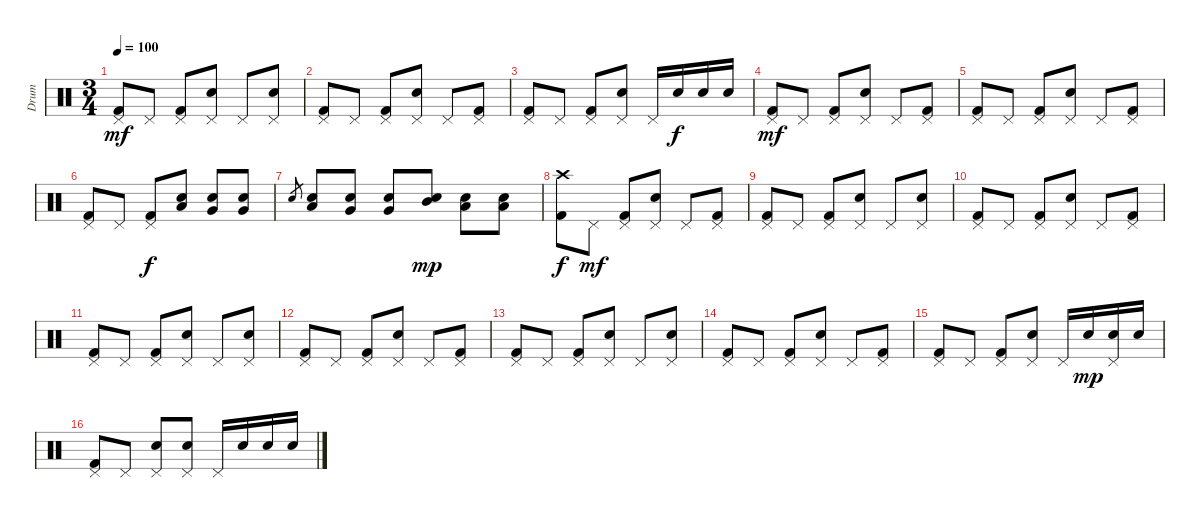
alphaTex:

\track ("Drum" "Drum") {instrument percussion}
\staff {score}
\articulation defaults
\ts (3 4)
\tempo 100
\clef neutral
\ks c
("Kick (hit) 2" "Pedal Hi-Hat (hit)").8{dy mf} "Pedal Hi-Hat (hit)".8 ("Kick (hit) 2" "Pedal Hi-Hat (hit)").8 ("Snare (hit) 2" "Pedal Hi-Hat (hit)").8 "Pedal Hi-Hat (hit)".8 ("Snare (hit) 2" "Pedal Hi-Hat (hit)").8 |
("Kick (hit) 2" "Pedal Hi-Hat (hit)").8 "Pedal Hi-Hat (hit)".8 ("Kick (hit) 2" "Pedal Hi-Hat (hit)").8 ("Snare (hit) 2" "Pedal Hi-Hat (hit)").8 "Pedal Hi-Hat (hit)".8 ("Kick (hit) 2" "Pedal Hi-Hat (hit)").8 |
("Kick (hit) 2" "Pedal Hi-Hat (hit)").8 "Pedal Hi-Hat (hit)".8 ("Kick (hit) 2" "Pedal Hi-Hat (hit)").8 ("Snare (hit) 2" "Pedal Hi-Hat (hit)").8 "Pedal Hi-Hat (hit)".16 "Snare (hit) 2".16{dy f} "Snare (hit) 2".16 "Snare (hit) 2".16 |
("Kick (hit) 2" "Pedal Hi-Hat (hit)").8{dy mf} "Pedal Hi-Hat (hit)".8 ("Kick (hit) 2" "Pedal Hi-Hat (hit)").8 ("Snare (hit) 2" "Pedal Hi-Hat (hit)").8 "Pedal Hi-Hat (hit)".8 ("Kick (hit) 2" "Pedal Hi-Hat (hit)").8 |
("Kick (hit) 2" "Pedal Hi-Hat (hit)").8 "Pedal Hi-Hat (hit)".8 ("Kick (hit) 2" "Pedal Hi-Hat (hit)").8 ("Snare (hit) 2" "Pedal Hi-Hat (hit)").8 "Pedal Hi-Hat (hit)".8 ("Kick (hit) 2" "Pedal Hi-Hat (hit)").8 |
("Kick (hit) 2" "Pedal Hi-Hat (hit)").8 "Pedal Hi-Hat (hit)".8 ("Kick (hit) 2" "Pedal Hi-Hat (hit)").8{dy f} ("Snare (hit) 2" "Low Tom (hit)").8{bd 30} ("Snare (hit) 2" "Very Low Tom (hit)").8{bd 30} ("Snare (hit) 2" "Very Low Tom (hit)").8{bd 30} |
"Electric Snare (hit)".8{gr} ("Snare (hit) 2" "Low Tom (hit)").8{bd 30} ("Snare (hit) 2" "Very Low Tom (hit)").8{bd 30} ("Snare (hit) 2" "Very Low Tom (hit)").8{bd 30} ("Snare (hit) 2" "Mid Tom (hit)").8{dy mp} ("Snare (hit) 2" "Low Tom (hit)").8 ("Snare (hit) 2" "Low Tom (hit)").8 |
("Kick (hit) 2" "Crash high (hit)").8{dy f} "Pedal Hi-Hat (hit)".8{dy mf} ("Kick (hit) 2" "Pedal Hi-Hat (hit)").8 ("Snare (hit) 2" "Pedal Hi-Hat (hit)").8 "Pedal Hi-Hat (hit)".8 ("Kick (hit) 2" "Pedal Hi-Hat (hit)").8 |
("Kick (hit) 2" "Pedal Hi-Hat (hit)").8 "Pedal Hi-Hat (hit)".8 ("Kick (hit) 2" "Pedal Hi-Hat (hit)").8 ("Snare (hit) 2" "Pedal Hi-Hat (hit)").8 "Pedal Hi-Hat (hit)".8 ("Snare (hit) 2" "Pedal Hi-Hat (hit)").8 |
("Kick (hit) 2" "Pedal Hi-Hat (hit)").8 "Pedal Hi-Hat (hit)".8 ("Kick (hit) 2" "Pedal Hi-Hat (hit)").8 ("Snare (hit) 2" "Pedal Hi-Hat (hit)").8 "Pedal Hi-Hat (hit)".8 ("Kick (hit) 2" "Pedal Hi-Hat (hit)").8 |
("Kick (hit) 2" "Pedal Hi-Hat (hit)").8 "Pedal Hi-Hat (hit)".8 ("Kick (hit) 2" "Pedal Hi-Hat (hit)").8 ("Snare (hit) 2" "Pedal Hi-Hat (hit)").8 "Pedal Hi-Hat (hit)".8 ("Snare (hit) 2" "Pedal Hi-Hat (hit)").8 |
("Kick (hit) 2" "Pedal Hi-Hat (hit)").8 "Pedal Hi-Hat (hit)".8 ("Kick (hit) 2" "Pedal Hi-Hat (hit)").8 ("Snare (hit) 2" "Pedal Hi-Hat (hit)").8 "Pedal Hi-Hat (hit)".8 ("Kick (hit) 2" "Pedal Hi-Hat (hit)").8 |
("Kick (hit) 2" "Pedal Hi-Hat (hit)").8 "Pedal Hi-Hat (hit)".8 ("Kick (hit) 2" "Pedal Hi-Hat (hit)").8 ("Snare (hit) 2" "Pedal Hi-Hat (hit)").8 "Pedal Hi-Hat (hit)".8 ("Snare (hit) 2" "Pedal Hi-Hat (hit)").8 |
("Kick (hit) 2" "Pedal Hi-Hat (hit)").8 "Pedal Hi-Hat (hit)".8 ("Kick (hit) 2" "Pedal Hi-Hat (hit)").8 ("Snare (hit) 2" "Pedal Hi-Hat (hit)").8 "Pedal Hi-Hat (hit)".8 ("Kick (hit) 2" "Pedal Hi-Hat (hit)").8 |
("Kick (hit) 2" "Pedal Hi-Hat (hit)").8 "Pedal Hi-Hat (hit)".8 ("Kick (hit) 2" "Pedal Hi-Hat (hit)").8 ("Snare (hit) 2" "Pedal Hi-Hat (hit)").8 "Pedal Hi-Hat (hit)".16 "Snare (hit) 2".16{dy mp} ("Snare (hit) 2" "Pedal Hi-Hat (hit)").16 "Snare (hit) 2".16 |
("Kick (hit) 2" "Pedal Hi-Hat (hit)").8 "Pedal Hi-Hat (hit)".8 ("Snare (hit) 2" "Pedal Hi-Hat (hit)").8 ("Snare (hit) 2" "Pedal Hi-Hat (hit)").8 "Pedal Hi-Hat (hit)".16 "Snare (hit) 2".16 "Snare (hit) 2".16 "Snare (hit) 2".16
